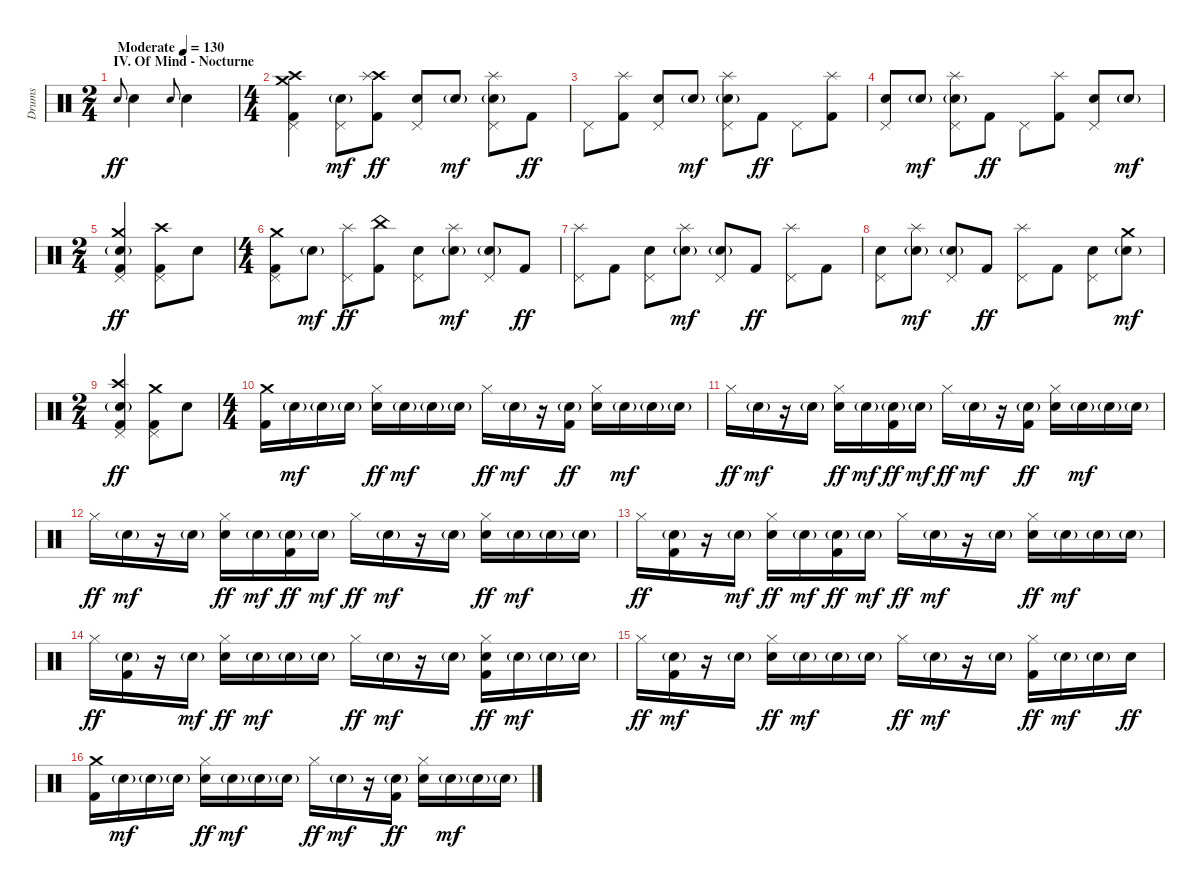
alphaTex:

\track ("Drums" "Drums") {instrument percussion}
\staff {score}
\articulation defaults
\ts (2 4)
\section ("" "IV. Of Mind - Nocturne")
\tempo (130 "Moderate")
\clef neutral
\ks c "Electric Snare (hit)".8{gr onbeat dy ff} "Electric Snare (hit)".4 "Electric Snare (hit)".8{gr onbeat} "Electric Snare (hit)".4
|
\ts (4 4)
("Crash medium (hit)" "Crash high (hit)" "Pedal Hi-Hat (hit)" "Kick (hit) 2").4 ("Pedal Hi-Hat (hit)" "Electric Snare (hit)"{g}).8{dy mf} ("Crash high (hit)" "Splash (hit)" "Kick (hit) 2").8{dy ff} ("Pedal Hi-Hat (hit)" "Electric Snare (hit)").8 "Electric Snare (hit)"{g}.8{dy mf} ("Splash (hit)" "Pedal Hi-Hat (hit)" "Electric Snare (hit)"{g}).8 "Kick (hit) 2".8{dy ff} |
"Pedal Hi-Hat (hit)".8 ("Splash (hit)" "Kick (hit) 2").8 ("Pedal Hi-Hat (hit)" "Electric Snare (hit)").8 "Electric Snare (hit)"{g}.8{dy mf} ("Splash (hit)" "Pedal Hi-Hat (hit)" "Electric Snare (hit)"{g}).8 "Kick (hit) 2".8{dy ff} "Pedal Hi-Hat (hit)".8 ("Splash (hit)" "Kick (hit) 2").8 |
("Pedal Hi-Hat (hit)" "Electric Snare (hit)").8 "Electric Snare (hit)"{g}.8{dy mf} ("Splash (hit)" "Pedal Hi-Hat (hit)" "Electric Snare (hit)"{g}).8 "Kick (hit) 2".8{dy ff} "Pedal Hi-Hat (hit)".8 ("Splash (hit)" "Kick (hit) 2").8 ("Pedal Hi-Hat (hit)" "Electric Snare (hit)").8 "Electric Snare (hit)"{g}.8{dy mf} |
\ts (2 4)
("Crash medium (hit)" "Pedal Hi-Hat (hit)" "Electric Snare (hit)"{g} "Kick (hit) 2").4{dy ff} ("Crash high (hit)" "Pedal Hi-Hat (hit)" "Kick (hit) 2").8 "Electric Snare (hit)".8 |
\ts (4 4)
("Crash medium (hit)" "Pedal Hi-Hat (hit)" "Kick (hit) 2").8 "Electric Snare (hit)"{g}.8{dy mf} ("Splash (hit)" "Pedal Hi-Hat (hit)").8{dy ff} ("China (hit)" "Kick (hit) 2").8 ("Pedal Hi-Hat (hit)" "Electric Snare (hit)").8 ("Splash (hit)" "Electric Snare (hit)"{g}).8{dy mf} ("Pedal Hi-Hat (hit)" "Electric Snare (hit)"{g}).8 "Kick (hit) 2".8{dy ff} |
("Splash (hit)" "Pedal Hi-Hat (hit)").8 "Kick (hit) 2".8 ("Pedal Hi-Hat (hit)" "Electric Snare (hit)").8 ("Splash (hit)" "Electric Snare (hit)"{g}).8{dy mf} ("Pedal Hi-Hat (hit)" "Electric Snare (hit)"{g}).8 "Kick (hit) 2".8{dy ff} ("Splash (hit)" "Pedal Hi-Hat (hit)").8 "Kick (hit) 2".8 |
("Pedal Hi-Hat (hit)" "Electric Snare (hit)").8 ("Splash (hit)" "Electric Snare (hit)"{g}).8{dy mf} ("Pedal Hi-Hat (hit)" "Electric Snare (hit)"{g}).8 "Kick (hit) 2".8{dy ff} ("Splash (hit)" "Pedal Hi-Hat (hit)").8 "Kick (hit) 2".8 ("Pedal Hi-Hat (hit)" "Electric Snare (hit)").8 ("Crash medium (hit)" "Electric Snare (hit)"{g}).8{dy mf} |
\ts (2 4)
("Crash high (hit)" "Pedal Hi-Hat (hit)" "Electric Snare (hit)"{g} "Kick (hit) 2").4{dy ff} ("Crash medium (hit)" "Pedal Hi-Hat (hit)" "Kick (hit) 2").8 "Electric Snare (hit)".8 |
\ts (4 4)
("Crash medium (hit)" "Kick (hit) 2").16 "Electric Snare (hit)"{g}.16{dy mf} "Electric Snare (hit)"{g}.16 "Electric Snare (hit)"{g}.16 ("Hi-Hat (closed)" "Electric Snare (hit)").16{dy ff} "Electric Snare (hit)"{g}.16{dy mf} "Electric Snare (hit)"{g}.16 "Electric Snare (hit)"{g}.16 "Hi-Hat (closed)".16{dy ff} "Electric Snare (hit)"{g}.16{dy mf} r.16 ("Electric Snare (hit)"{g} "Kick (hit) 2").16{dy ff} ("Hi-Hat (closed)" "Electric Snare (hit)").16 "Electric Snare (hit)"{g}.16{dy mf} "Electric Snare (hit)"{g}.16 "Electric Snare (hit)"{g}.16 |
"Hi-Hat (closed)".16{dy ff} "Electric Snare (hit)"{g}.16{dy mf} r.16 "Electric Snare (hit)"{g}.16 ("Hi-Hat (closed)" "Electric Snare (hit)").16{dy ff} "Electric Snare (hit)"{g}.16{dy mf} ("Electric Snare (hit)"{g} "Kick (hit) 2").16{dy ff} "Electric Snare (hit)"{g}.16{dy mf} "Hi-Hat (closed)".16{dy ff} "Electric Snare (hit)"{g}.16{dy mf} r.16 ("Electric Snare (hit)"{g} "Kick (hit) 2").16{dy ff} ("Hi-Hat (closed)" "Electric Snare (hit)").16 "Electric Snare (hit)"{g}.16{dy mf} "Electric Snare (hit)"{g}.16 "Electric Snare (hit)"{g}.16 |
"Hi-Hat (closed)".16{dy ff} "Electric Snare (hit)"{g}.16{dy mf} r.16 "Electric Snare (hit)"{g}.16 ("Hi-Hat (closed)" "Electric Snare (hit)").16{dy ff} "Electric Snare (hit)"{g}.16{dy mf} ("Electric Snare (hit)"{g} "Kick (hit) 2").16{dy ff} "Electric Snare (hit)"{g}.16{dy mf} "Hi-Hat (closed)".16{dy ff} "Electric Snare (hit)"{g}.16{dy mf} r.16 "Electric Snare (hit)"{g}.16 ("Hi-Hat (closed)" "Electric Snare (hit)").16{dy ff} "Electric Snare (hit)"{g}.16{dy mf} "Electric Snare (hit)"{g}.16 "Electric Snare (hit)"{g}.16 |
"Hi-Hat (closed)".16{dy ff} ("Electric Snare (hit)"{g} "Kick (hit) 2").16 r.16 "Electric Snare (hit)"{g}.16{dy mf} ("Hi-Hat (closed)" "Electric Snare (hit)").16{dy ff} "Electric Snare (hit)"{g}.16{dy mf} ("Electric Snare (hit)"{g} "Kick (hit) 2").16{dy ff} "Electric Snare (hit)"{g}.16{dy mf} "Hi-Hat (closed)".16{dy ff} "Electric Snare (hit)"{g}.16{dy mf} r.16 "Electric Snare (hit)"{g}.16 ("Hi-Hat (closed)" "Electric Snare (hit)").16{dy ff} "Electric Snare (hit)"{g}.16{dy mf} "Electric Snare (hit)"{g}.16 "Electric Snare (hit)"{g}.16 |
"Hi-Hat (closed)".16{dy ff} ("Electric Snare (hit)"{g} "Kick (hit) 2").16 r.16 "Electric Snare (hit)"{g}.16{dy mf} ("Hi-Hat (closed)" "Electric Snare (hit)").16{dy ff} "Electric Snare (hit)"{g}.16{dy mf} "Electric Snare (hit)"{g}.16 "Electric Snare (hit)"{g}.16 "Hi-Hat (closed)".16{dy ff} "Electric Snare (hit)"{g}.16{dy mf} r.16 "Electric Snare (hit)"{g}.16 ("Hi-Hat (closed)" "Electric Snare (hit)" "Kick (hit) 2").16{dy ff} "Electric Snare (hit)"{g}.16{dy mf} "Electric Snare (hit)"{g}.16 "Electric Snare (hit)"{g}.16 |
"Hi-Hat (closed)".16{dy ff} ("Electric Snare (hit)"{g} "Kick (hit) 2").16{dy mf} r.16 "Electric Snare (hit)"{g}.16 ("Hi-Hat (closed)" "Electric Snare (hit)").16{dy ff} "Electric Snare (hit)"{g}.16{dy mf} "Electric Snare (hit)"{g}.16 "Electric Snare (hit)"{g}.16 "Hi-Hat (closed)".16{dy ff} "Electric Snare (hit)"{g}.16{dy mf} r.16 "Electric Snare (hit)"{g}.16 ("Hi-Hat (closed)" "Kick (hit) 2").16{dy ff} "Electric Snare (hit)"{g}.16{dy mf} "Electric Snare (hit)"{g}.16 "Electric Snare (hit)".16{dy ff} |
("Crash medium (hit)" "Kick (hit) 2").16 "Electric Snare (hit)"{g}.16{dy mf} "Electric Snare (hit)"{g}.16 "Electric Snare (hit)"{g}.16 ("Hi-Hat (closed)" "Electric Snare (hit)").16{dy ff} "Electric Snare (hit)"{g}.16{dy mf} "Electric Snare (hit)"{g}.16 "Electric Snare (hit)"{g}.16 "Hi-Hat (closed)".16{dy ff} "Electric Snare (hit)"{g}.16{dy mf} r.16 ("Electric Snare (hit)"{g} "Kick (hit) 2").16{dy ff} ("Hi-Hat (closed)" "Electric Snare (hit)").16 "Electric Snare (hit)"{g}.16{dy mf} "Electric Snare (hit)"{g}.16 "Electric Snare (hit)"{g}.16
